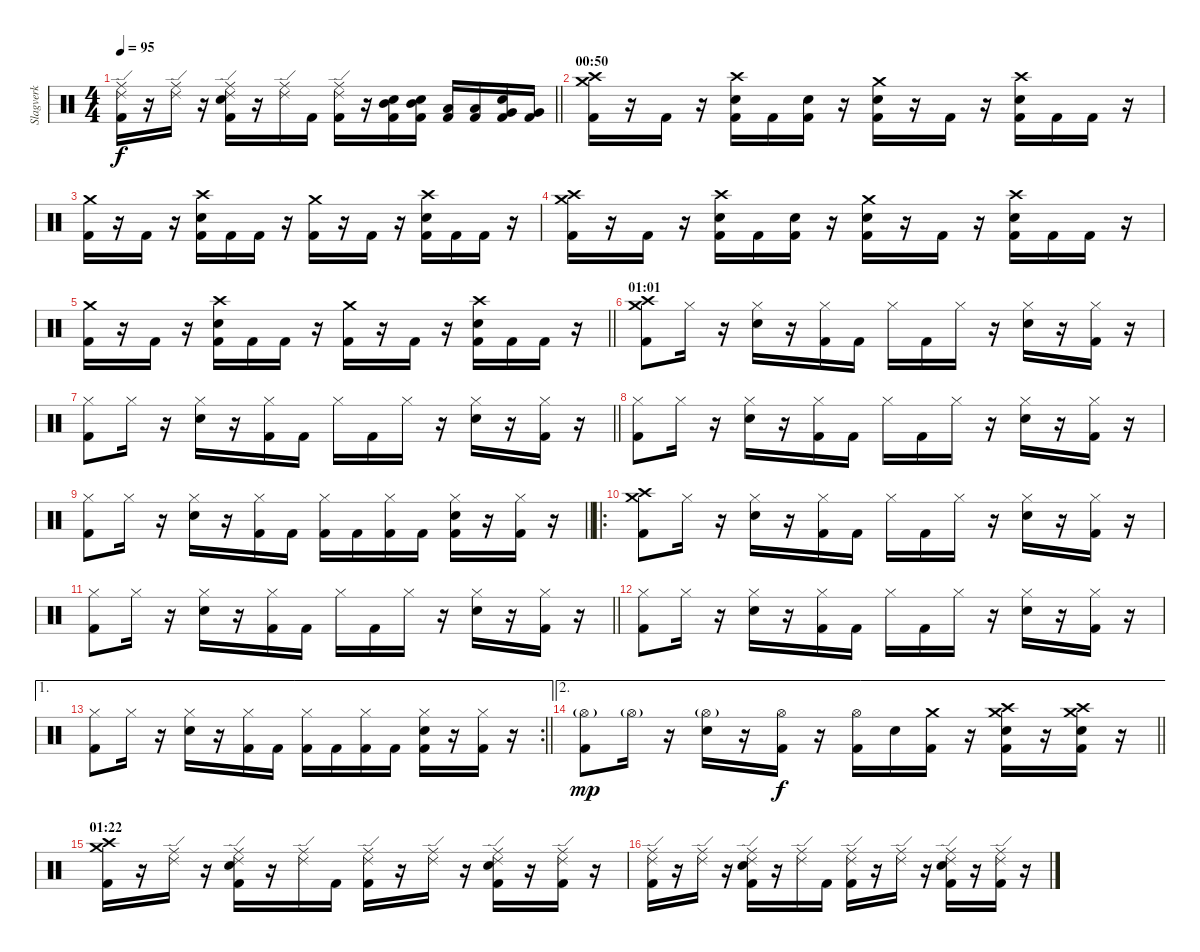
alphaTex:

\track ("Slagverk" "Slagverk") {instrument percussion}
\staff {score}
\articulation defaults
\ts (4 4)
\tempo 95
\clef neutral
\barLineRight lightlight
\ks c
("Ride (middle)" "Ride (edge) 2" "Kick (hit) 2").16{dy f} r.16 ("Ride (middle)" "Ride (edge) 2").16 r.16 ("Ride (middle)" "Ride (edge) 2" "Electric Snare (hit)" "Kick (hit) 2").16 r.16 ("Ride (middle)" "Ride (edge) 2").16 "Kick (hit) 2".16 ("Ride (middle)" "Ride (edge) 2" "Kick (hit) 2").16 r.16 ("Mid Tom (hit)" "Electric Snare (hit)" "Kick (hit) 2").16 ("Mid Tom (hit)" "Electric Snare (hit)" "Kick (hit) 2").16 ("Low Tom (hit)" "Kick (hit) 2").16 ("Low Tom (hit)" "Kick (hit) 2").16 ("Very Low Tom (hit)" "Electric Snare (hit)" "Kick (hit) 2").16 ("Very Low Tom (hit)" "Kick (hit) 2").16 |
\section ("" "00:50")
("Crash medium (hit)" "Crash high (hit)" "Kick (hit) 2").16 r.16 "Kick (hit) 2".16 r.16 ("Crash high (hit)" "Electric Snare (hit)" "Kick (hit) 2").16 "Kick (hit) 2".16 ("Electric Snare (hit)" "Kick (hit) 2").16 r.16 ("Crash medium (hit)" "Electric Snare (hit)" "Kick (hit) 2").16 r.16 "Kick (hit) 2".16 r.16 ("Crash high (hit)" "Electric Snare (hit)" "Kick (hit) 2").16 "Kick (hit) 2".16 "Kick (hit) 2".16 r.16 |
("Crash medium (hit)" "Kick (hit) 2").16 r.16 "Kick (hit) 2".16 r.16 ("Crash high (hit)" "Electric Snare (hit)" "Kick (hit) 2").16 "Kick (hit) 2".16 "Kick (hit) 2".16 r.16 ("Crash medium (hit)" "Kick (hit) 2").16 r.16 "Kick (hit) 2".16 r.16 ("Crash high (hit)" "Electric Snare (hit)" "Kick (hit) 2").16 "Kick (hit) 2".16 "Kick (hit) 2".16 r.16 |
("Crash medium (hit)" "Crash high (hit)" "Kick (hit) 2").16 r.16 "Kick (hit) 2".16 r.16 ("Crash high (hit)" "Electric Snare (hit)" "Kick (hit) 2").16 "Kick (hit) 2".16 ("Electric Snare (hit)" "Kick (hit) 2").16 r.16 ("Crash medium (hit)" "Electric Snare (hit)" "Kick (hit) 2").16 r.16 "Kick (hit) 2".16 r.16 ("Crash high (hit)" "Electric Snare (hit)" "Kick (hit) 2").16 "Kick (hit) 2".16 "Kick (hit) 2".16 r.16 |
\barLineRight lightlight
("Crash medium (hit)" "Kick (hit) 2").16 r.16 "Kick (hit) 2".16 r.16 ("Crash high (hit)" "Electric Snare (hit)" "Kick (hit) 2").16 "Kick (hit) 2".16 "Kick (hit) 2".16 r.16 ("Crash medium (hit)" "Kick (hit) 2").16 r.16 "Kick (hit) 2".16 r.16 ("Crash high (hit)" "Electric Snare (hit)" "Kick (hit) 2").16 "Kick (hit) 2".16 "Kick (hit) 2".16 r.16 |
\section ("" "01:01")
("Crash medium (hit)" "Crash high (hit)" "Kick (hit) 2").8 "Hi-Hat (closed)".16 r.16 ("Hi-Hat (closed)" "Electric Snare (hit)").16 r.16 ("Hi-Hat (closed)" "Kick (hit) 2").16 "Kick (hit) 2".16 "Hi-Hat (closed)".16 "Kick (hit) 2".16 "Hi-Hat (closed)".16 r.16 ("Hi-Hat (closed)" "Electric Snare (hit)").16 r.16 ("Hi-Hat (closed)" "Kick (hit) 2").16 r.16 |
\barLineRight lightlight
("Hi-Hat (closed)" "Kick (hit) 2").8 "Hi-Hat (closed)".16 r.16 ("Hi-Hat (closed)" "Electric Snare (hit)").16 r.16 ("Hi-Hat (closed)" "Kick (hit) 2").16 "Kick (hit) 2".16 "Hi-Hat (closed)".16 "Kick (hit) 2".16 "Hi-Hat (closed)".16 r.16 ("Hi-Hat (closed)" "Electric Snare (hit)").16 r.16 ("Hi-Hat (closed)" "Kick (hit) 2").16 r.16 |
("Hi-Hat (closed)" "Kick (hit) 2").8 "Hi-Hat (closed)".16 r.16 ("Hi-Hat (closed)" "Electric Snare (hit)").16 r.16 ("Hi-Hat (closed)" "Kick (hit) 2").16 "Kick (hit) 2".16 "Hi-Hat (closed)".16 "Kick (hit) 2".16 "Hi-Hat (closed)".16 r.16 ("Hi-Hat (closed)" "Electric Snare (hit)").16 r.16 ("Hi-Hat (closed)" "Kick (hit) 2").16 r.16 |
\barLineRight lightlight
("Hi-Hat (closed)" "Kick (hit) 2").8 "Hi-Hat (closed)".16 r.16 ("Hi-Hat (closed)" "Electric Snare (hit)").16 r.16 ("Hi-Hat (closed)" "Kick (hit) 2").16 "Kick (hit) 2".16 ("Hi-Hat (closed)" "Kick (hit) 2").16 "Kick (hit) 2".16 ("Hi-Hat (closed)" "Kick (hit) 2").16 "Kick (hit) 2".16 ("Hi-Hat (closed)" "Electric Snare (hit)" "Kick (hit) 2").16 r.16 ("Hi-Hat (closed)" "Kick (hit) 2").16 r.16 |
\ro
("Crash medium (hit)" "Crash high (hit)" "Kick (hit) 2").8 "Hi-Hat (closed)".16 r.16 ("Hi-Hat (closed)" "Electric Snare (hit)").16 r.16 ("Hi-Hat (closed)" "Kick (hit) 2").16 "Kick (hit) 2".16 "Hi-Hat (closed)".16 "Kick (hit) 2".16 "Hi-Hat (closed)".16 r.16 ("Hi-Hat (closed)" "Electric Snare (hit)").16 r.16 ("Hi-Hat (closed)" "Kick (hit) 2").16 r.16 |
\barLineRight lightlight
("Hi-Hat (closed)" "Kick (hit) 2").8 "Hi-Hat (closed)".16 r.16 ("Hi-Hat (closed)" "Electric Snare (hit)").16 r.16 ("Hi-Hat (closed)" "Kick (hit) 2").16 "Kick (hit) 2".16 "Hi-Hat (closed)".16 "Kick (hit) 2".16 "Hi-Hat (closed)".16 r.16 ("Hi-Hat (closed)" "Electric Snare (hit)").16 r.16 ("Hi-Hat (closed)" "Kick (hit) 2").16 r.16 |
("Hi-Hat (closed)" "Kick (hit) 2").8 "Hi-Hat (closed)".16 r.16 ("Hi-Hat (closed)" "Electric Snare (hit)").16 r.16 ("Hi-Hat (closed)" "Kick (hit) 2").16 "Kick (hit) 2".16 "Hi-Hat (closed)".16 "Kick (hit) 2".16 "Hi-Hat (closed)".16 r.16 ("Hi-Hat (closed)" "Electric Snare (hit)").16 r.16 ("Hi-Hat (closed)" "Kick (hit) 2").16 r.16 |
\ae 1
\rc 2
\barLineRight lightlight
("Hi-Hat (closed)" "Kick (hit) 2").8 "Hi-Hat (closed)".16 r.16 ("Hi-Hat (closed)" "Electric Snare (hit)").16 r.16 ("Hi-Hat (closed)" "Kick (hit) 2").16 "Kick (hit) 2".16 ("Hi-Hat (closed)" "Kick (hit) 2").16 "Kick (hit) 2".16 ("Hi-Hat (closed)" "Kick (hit) 2").16 "Kick (hit) 2".16 ("Hi-Hat (closed)" "Electric Snare (hit)" "Kick (hit) 2").16 r.16 ("Hi-Hat (closed)" "Kick (hit) 2").16 r.16 |
\ae 2
\barLineRight lightlight
("Hi-Hat (open)"{g} "Kick (hit) 2").8{dy mp} "Hi-Hat (open)"{g}.16 r.16 ("Hi-Hat (open)"{g} "Electric Snare (hit)").16 r.16 ("Hi-Hat (open)" "Kick (hit) 2").16{dy f} r.16 ("Hi-Hat (open)" "Kick (hit) 2").16 "Electric Snare (hit)".16 ("Crash medium (hit)" "Kick (hit) 2").16 r.16 ("Crash high (hit)" "Crash medium (hit)" "Electric Snare (hit)" "Kick (hit) 2").16 r.16 ("Crash high (hit)" "Crash medium (hit)" "Electric Snare (hit)" "Kick (hit) 2").16 r.16 |
\section ("" "01:22")
("Crash medium (hit)" "Crash high (hit)" "Kick (hit) 2").16 r.16 ("Ride (middle)" "Ride (edge) 2").16 r.16 ("Ride (middle)" "Ride (edge) 2" "Electric Snare (hit)" "Kick (hit) 2").16 r.16 ("Ride (middle)" "Ride (edge) 2").16 "Kick (hit) 2".16 ("Ride (middle)" "Ride (edge) 2" "Kick (hit) 2").16 r.16 ("Ride (middle)" "Ride (edge) 2").16 r.16 ("Ride (middle)" "Ride (edge) 2" "Electric Snare (hit)" "Kick (hit) 2").16 r.16 ("Ride (middle)" "Ride (edge) 2" "Kick (hit) 2").16 r.16 |
("Ride (middle)" "Ride (edge) 2" "Kick (hit) 2").16 r.16 ("Ride (middle)" "Ride (edge) 2").16 r.16 ("Ride (middle)" "Ride (edge) 2" "Electric Snare (hit)" "Kick (hit) 2").16 r.16 ("Ride (middle)" "Ride (edge) 2").16 "Kick (hit) 2".16 ("Ride (middle)" "Ride (edge) 2" "Kick (hit) 2").16 r.16 ("Ride (middle)" "Ride (edge) 2").16 r.16 ("Ride (middle)" "Ride (edge) 2" "Electric Snare (hit)" "Kick (hit) 2").16 r.16 ("Ride (middle)" "Ride (edge) 2" "Kick (hit) 2").16 r.16
